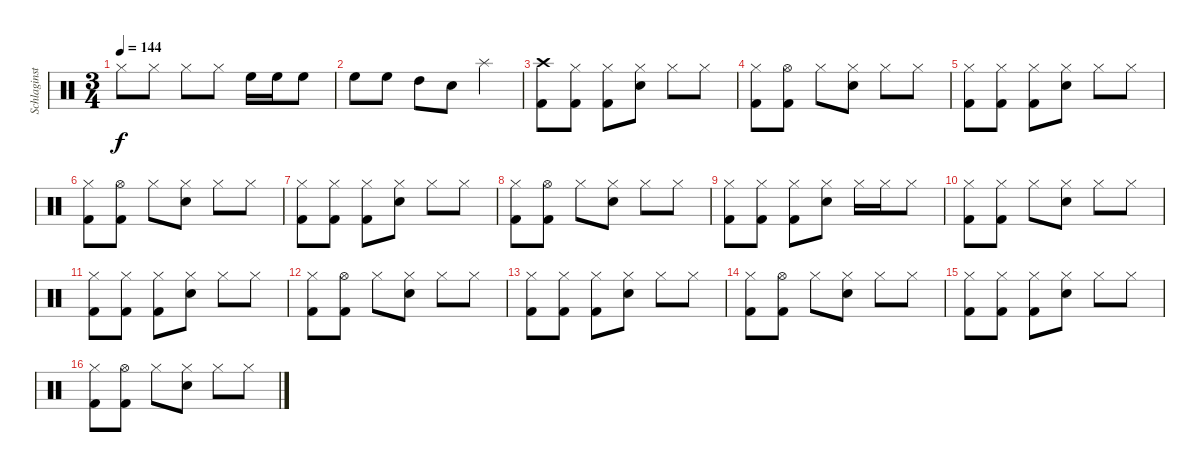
\track ("Schlaginstrumente - Auswahl" "Schlaginst") {instrument percussion}
\staff {score}
\articulation defaults
\ts (3 4)
\tempo 144
\clef neutral
\ks c "Hi-Hat (closed)".8{dy f} "Hi-Hat (closed)".8 "Hi-Hat (closed)".8 "Hi-Hat (closed)".8 "High Floor Tom (hit)".16 "High Floor Tom (hit)".16 "High Floor Tom (hit)".8
|
"High Floor Tom (hit)".8 "High Floor Tom (hit)".8 "High Tom (hit)".8 "Snare (hit) 2".8 "Splash (hit)".4 |
("Crash high (hit)" "Kick (hit) 2").8 ("Hi-Hat (closed)" "Kick (hit) 2").8 ("Hi-Hat (closed)" "Kick (hit) 2").8 ("Hi-Hat (closed)" "Snare (hit) 2").8 "Hi-Hat (closed)".8 "Hi-Hat (closed)".8 |
("Hi-Hat (closed)" "Kick (hit) 2").8 ("Hi-Hat (open)" "Kick (hit) 2").8 "Hi-Hat (closed)".8 ("Hi-Hat (closed)" "Snare (hit) 2").8 "Hi-Hat (closed)".8 "Hi-Hat (closed)".8 |
("Hi-Hat (closed)" "Kick (hit) 2").8 ("Hi-Hat (closed)" "Kick (hit) 2").8 ("Hi-Hat (closed)" "Kick (hit) 2").8 ("Hi-Hat (closed)" "Snare (hit) 2").8 "Hi-Hat (closed)".8 "Hi-Hat (closed)".8 |
("Hi-Hat (closed)" "Kick (hit) 2").8 ("Hi-Hat (open)" "Kick (hit) 2").8 "Hi-Hat (closed)".8 ("Hi-Hat (closed)" "Snare (hit) 2").8 "Hi-Hat (closed)".8 "Hi-Hat (closed)".8 |
("Hi-Hat (closed)" "Kick (hit) 2").8 ("Hi-Hat (closed)" "Kick (hit) 2").8 ("Hi-Hat (closed)" "Kick (hit) 2").8 ("Hi-Hat (closed)" "Snare (hit) 2").8 "Hi-Hat (closed)".8 "Hi-Hat (closed)".8 |
("Hi-Hat (closed)" "Kick (hit) 2").8 ("Hi-Hat (open)" "Kick (hit) 2").8 "Hi-Hat (closed)".8 ("Hi-Hat (closed)" "Snare (hit) 2").8 "Hi-Hat (closed)".8 "Hi-Hat (closed)".8 |
("Hi-Hat (closed)" "Kick (hit) 2").8 ("Hi-Hat (closed)" "Kick (hit) 2").8 ("Hi-Hat (closed)" "Kick (hit) 2").8 ("Hi-Hat (closed)" "Snare (hit) 2").8 "Hi-Hat (closed)".16 "Hi-Hat (closed)".16 "Hi-Hat (closed)".8 |
("Hi-Hat (closed)" "Kick (hit) 2").8 ("Hi-Hat (closed)" "Kick (hit) 2").8 "Hi-Hat (closed)".8 ("Hi-Hat (closed)" "Snare (hit) 2").8 "Hi-Hat (closed)".8 "Hi-Hat (closed)".8 |
("Hi-Hat (closed)" "Kick (hit) 2").8 ("Hi-Hat (closed)" "Kick (hit) 2").8 ("Hi-Hat (closed)" "Kick (hit) 2").8 ("Hi-Hat (closed)" "Snare (hit) 2").8 "Hi-Hat (closed)".8 "Hi-Hat (closed)".8 |
("Hi-Hat (closed)" "Kick (hit) 2").8 ("Hi-Hat (open)" "Kick (hit) 2").8 "Hi-Hat (closed)".8 ("Hi-Hat (closed)" "Snare (hit) 2").8 "Hi-Hat (closed)".8 "Hi-Hat (closed)".8 |
("Hi-Hat (closed)" "Kick (hit) 2").8 ("Hi-Hat (closed)" "Kick (hit) 2").8 ("Hi-Hat (closed)" "Kick (hit) 2").8 ("Hi-Hat (closed)" "Snare (hit) 2").8 "Hi-Hat (closed)".8 "Hi-Hat (closed)".8 |
("Hi-Hat (closed)" "Kick (hit) 2").8 ("Hi-Hat (open)" "Kick (hit) 2").8 "Hi-Hat (closed)".8 ("Hi-Hat (closed)" "Snare (hit) 2").8 "Hi-Hat (closed)".8 "Hi-Hat (closed)".8 |
("Hi-Hat (closed)" "Kick (hit) 2").8 ("Hi-Hat (closed)" "Kick (hit) 2").8 ("Hi-Hat (closed)" "Kick (hit) 2").8 ("Hi-Hat (closed)" "Snare (hit) 2").8 "Hi-Hat (closed)".8 "Hi-Hat (closed)".8 |
("Hi-Hat (closed)" "Kick (hit) 2").8 ("Hi-Hat (open)" "Kick (hit) 2").8 "Hi-Hat (closed)".8 ("Hi-Hat (closed)" "Snare (hit) 2").8 "Hi-Hat (closed)".8 "Hi-Hat (closed)".8
